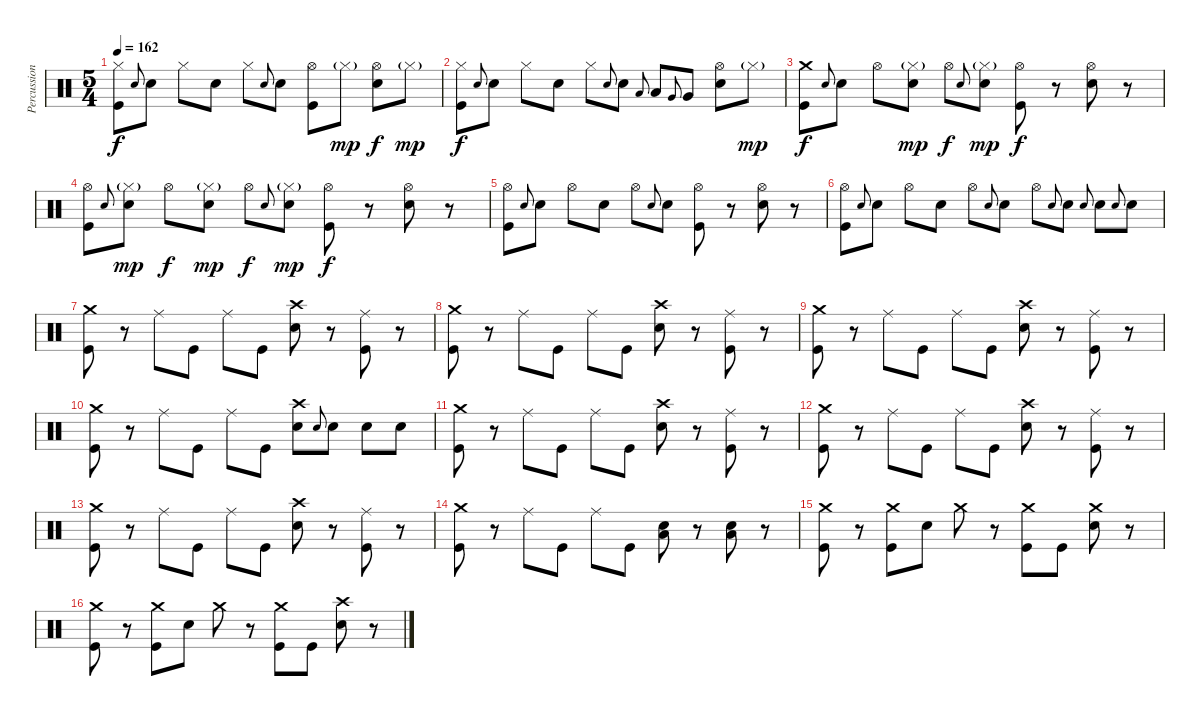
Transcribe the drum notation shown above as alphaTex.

\track ("Percussion" "Percussion") {instrument percussion}
\staff {score}
\articulation defaults
\ts (5 4)
\tempo 162
\clef neutral
\ks c
("Hi-Hat (closed)" "Kick (hit)").8{dy f} "Snare (hit) 2".8{gr onbeat} "Snare (hit) 2".8 "Hi-Hat (closed)".8 "Snare (hit) 2".8 "Hi-Hat (closed)".8 "Snare (hit) 2".8{gr onbeat} "Snare (hit) 2".8 ("Hi-Hat (open)" "Kick (hit)").8 "Hi-Hat (closed)"{g}.8{dy mp} ("Hi-Hat (open)" "Snare (hit) 2").8{dy f} "Hi-Hat (closed)"{g}.8{dy mp} |
("Hi-Hat (closed)" "Kick (hit)").8{dy f} "Snare (hit) 2".8{gr onbeat} "Snare (hit) 2".8 "Hi-Hat (closed)".8 "Snare (hit) 2".8 "Hi-Hat (closed)".8 "Snare (hit) 2".8{gr onbeat} "Snare (hit) 2".8 "Low Tom (hit)".8{gr onbeat} "Low Tom (hit)".8 "Very Low Tom (hit)".8{gr onbeat} "Very Low Tom (hit)".8 ("Hi-Hat (open)" "Snare (hit) 2").8 "Hi-Hat (closed)"{g}.8{dy mp} |
("Crash medium (hit)" "Kick (hit)").8{dy f} "Snare (hit) 2".8{gr onbeat} "Snare (hit) 2".8 "Hi-Hat (open)".8 ("Hi-Hat (closed)"{g} "Snare (hit) 2").8{dy mp} "Hi-Hat (open)".8{dy f} "Snare (hit) 2".8{gr onbeat} ("Hi-Hat (closed)"{g} "Snare (hit) 2").8{dy mp} ("Hi-Hat (open)" "Kick (hit)").8{dy f} r.8 ("Hi-Hat (open)" "Snare (hit) 2").8 r.8 |
("Hi-Hat (open)" "Kick (hit)").8 "Snare (hit) 2".8{gr onbeat} ("Hi-Hat (closed)"{g} "Snare (hit) 2").8{dy mp} "Hi-Hat (open)".8{dy f} ("Hi-Hat (closed)"{g} "Snare (hit) 2").8{dy mp} "Hi-Hat (open)".8{dy f} "Snare (hit) 2".8{gr onbeat} ("Hi-Hat (closed)"{g} "Snare (hit) 2").8{dy mp} ("Hi-Hat (open)" "Kick (hit)").8{dy f} r.8 ("Hi-Hat (open)" "Snare (hit) 2").8 r.8 |
("Hi-Hat (open)" "Kick (hit)").8 "Snare (hit) 2".8{gr onbeat} "Snare (hit) 2".8 "Hi-Hat (open)".8 "Snare (hit) 2".8 "Hi-Hat (open)".8 "Snare (hit) 2".8{gr onbeat} "Snare (hit) 2".8 ("Hi-Hat (open)" "Kick (hit)").8 r.8 ("Hi-Hat (open)" "Snare (hit) 2").8 r.8 |
("Hi-Hat (open)" "Kick (hit)").8 "Snare (hit) 2".8{gr onbeat} "Snare (hit) 2".8 "Hi-Hat (open)".8 "Snare (hit) 2".8 "Hi-Hat (open)".8 "Snare (hit) 2".8{gr onbeat} "Snare (hit) 2".8 "Hi-Hat (open)".8 "Snare (hit) 2".8{gr onbeat} "Snare (hit) 2".8 "Snare (hit) 2".8{gr onbeat} "Snare (hit) 2".8 "Snare (hit) 2".8{gr onbeat} "Snare (hit) 2".8 |
("Crash medium (hit)" "Kick (hit)").8 r.8 "Ride (middle)".8 "Kick (hit)".8 "Ride (middle)".8 "Kick (hit)".8 ("Crash high (hit)" "Snare (hit) 2").8 r.8 ("Ride (middle)" "Kick (hit)").8 r.8 |
("Crash medium (hit)" "Kick (hit)").8 r.8 "Ride (middle)".8 "Kick (hit)".8 "Ride (middle)".8 "Kick (hit)".8 ("Crash high (hit)" "Snare (hit) 2").8 r.8 ("Ride (middle)" "Kick (hit)").8 r.8 |
("Crash medium (hit)" "Kick (hit)").8 r.8 "Ride (middle)".8 "Kick (hit)".8 "Ride (middle)".8 "Kick (hit)".8 ("Crash high (hit)" "Snare (hit) 2").8 r.8 ("Ride (middle)" "Kick (hit)").8 r.8 |
("Crash medium (hit)" "Kick (hit)").8 r.8 "Ride (middle)".8 "Kick (hit)".8 "Ride (middle)".8 "Kick (hit)".8 ("Crash high (hit)" "Snare (hit) 2").8 "Snare (hit) 2".8{gr onbeat} "Snare (hit) 2".8 "Snare (hit) 2".8 "Snare (hit) 2".8 |
("Crash medium (hit)" "Kick (hit)").8 r.8 "Ride (middle)".8 "Kick (hit)".8 "Ride (middle)".8 "Kick (hit)".8 ("Crash high (hit)" "Snare (hit) 2").8 r.8 ("Ride (middle)" "Kick (hit)").8 r.8 |
("Crash medium (hit)" "Kick (hit)").8 r.8 "Ride (middle)".8 "Kick (hit)".8 "Ride (middle)".8 "Kick (hit)".8 ("Crash high (hit)" "Snare (hit) 2").8 r.8 ("Ride (middle)" "Kick (hit)").8 r.8 |
("Crash medium (hit)" "Kick (hit)").8 r.8 "Ride (middle)".8 "Kick (hit)".8 "Ride (middle)".8 "Kick (hit)".8 ("Crash high (hit)" "Snare (hit) 2").8 r.8 ("Ride (middle)" "Kick (hit)").8 r.8 |
("Crash medium (hit)" "Kick (hit)").8 r.8 "Ride (middle)".8 "Kick (hit)".8 "Ride (middle)".8 "Kick (hit)".8 ("Low Floor Tom (hit)" "Snare (hit) 2").8 r.8 ("Low Floor Tom (hit)" "Snare (hit) 2").8 r.8 |
("Crash medium (hit)" "Kick (hit)").8 r.8 ("Crash medium (hit)" "Kick (hit)").8 "Snare (hit) 2".8 "Crash medium (hit)".8 r.8 ("Crash medium (hit)" "Kick (hit)").8 "Kick (hit)".8 ("Crash medium (hit)" "Snare (hit) 2").8 r.8 |
("Crash medium (hit)" "Kick (hit)").8 r.8 ("Crash medium (hit)" "Kick (hit)").8 "Snare (hit) 2".8 "Crash medium (hit)".8 r.8 ("Crash medium (hit)" "Kick (hit)").8 "Kick (hit)".8 ("Crash high (hit)" "Snare (hit) 2").8 r.8
